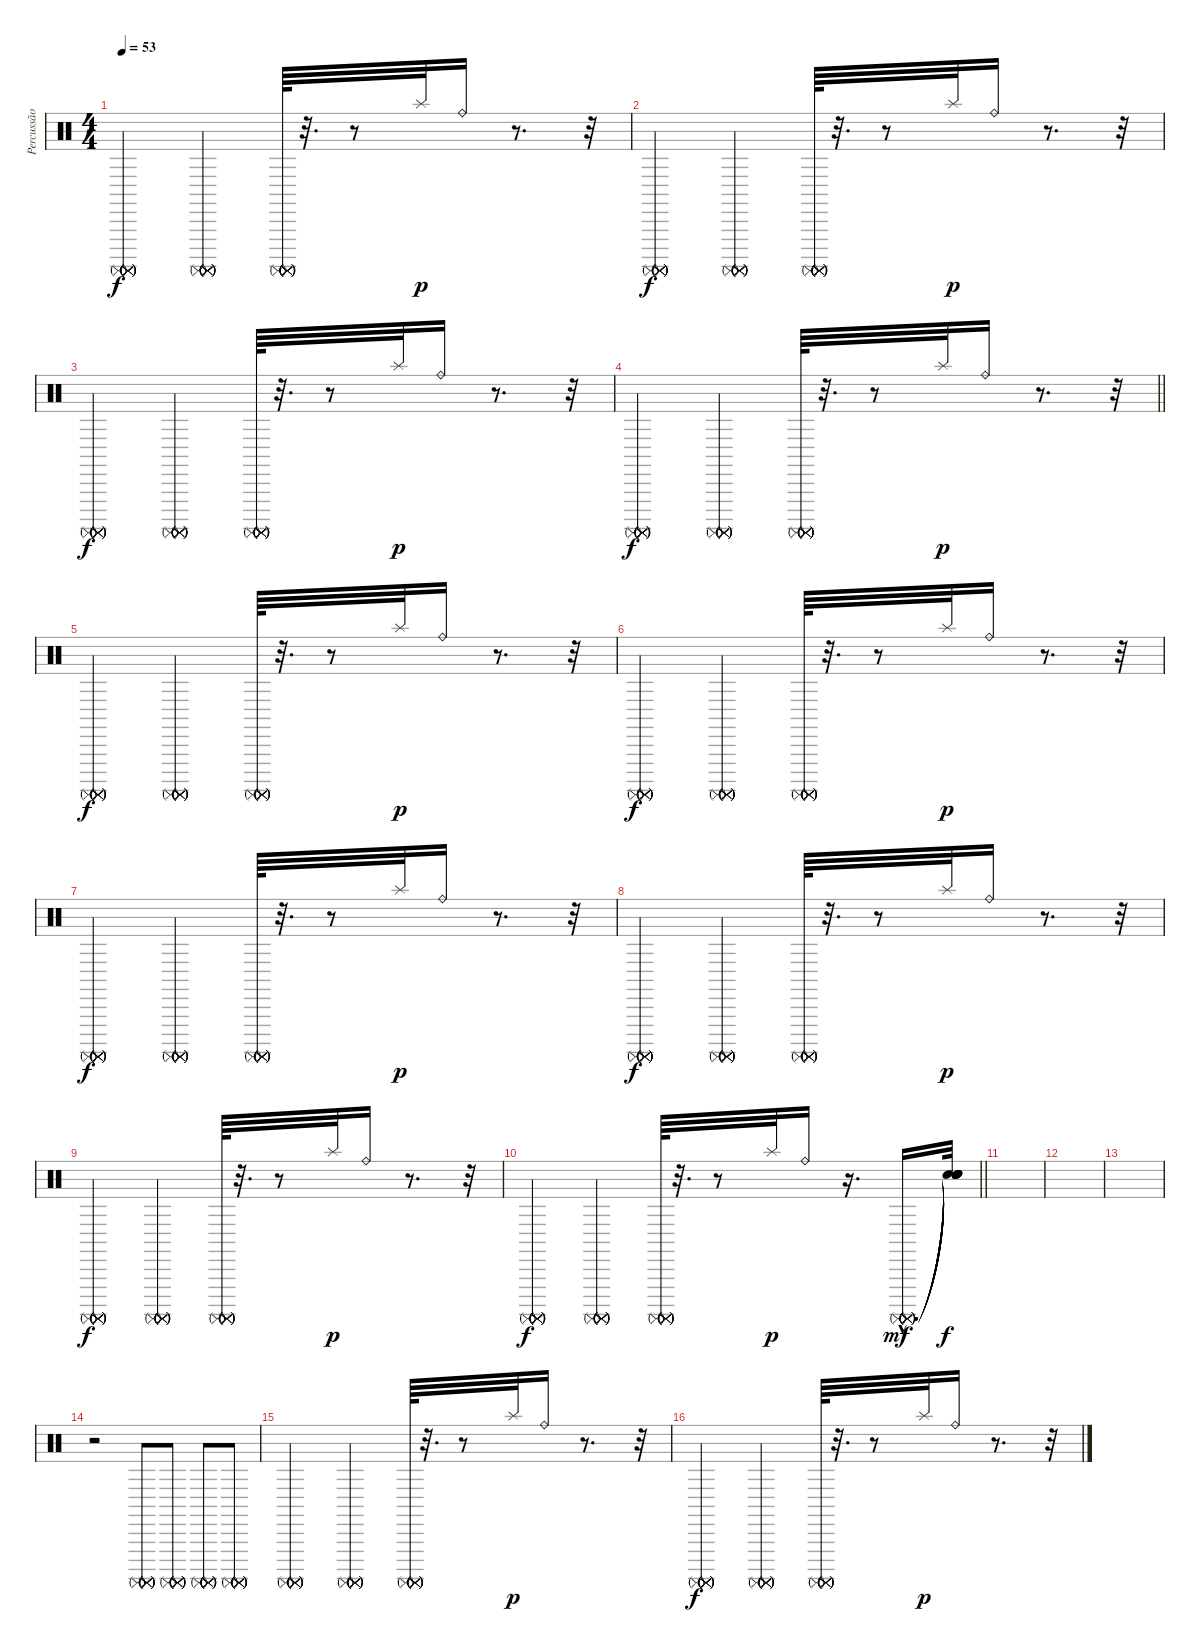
\track ("Percussão" "Percussão") {instrument percussion}
\staff {score}
\articulation defaults
\ts (4 4)
\tempo 53
\clef neutral
\ks c
("Surdo (mute)" "Surdo (mute)" "Surdo (mute)" "Surdo (mute)" "Surdo (mute)" "Surdo (mute)").4{dy f} ("Surdo (mute)" "Surdo (mute)" "Surdo (mute)" "Surdo (mute)" "Surdo (mute)" "Surdo (mute)").4 ("Surdo (mute)" "Surdo (mute)" "Surdo (mute)" "Surdo (mute)" "Surdo (mute)" "Surdo (mute)").64 r.32{d} r.8 "Splash (hit)".32{dy p} "Ride (bell)".16 r.8{d} r.32 |
("Surdo (mute)" "Surdo (mute)" "Surdo (mute)" "Surdo (mute)" "Surdo (mute)" "Surdo (mute)").4{dy f} ("Surdo (mute)" "Surdo (mute)" "Surdo (mute)" "Surdo (mute)" "Surdo (mute)" "Surdo (mute)").4 ("Surdo (mute)" "Surdo (mute)" "Surdo (mute)" "Surdo (mute)" "Surdo (mute)" "Surdo (mute)").64 r.32{d} r.8 "Splash (hit)".32{dy p} "Ride (bell)".16 r.8{d} r.32 |
("Surdo (mute)" "Surdo (mute)" "Surdo (mute)" "Surdo (mute)" "Surdo (mute)" "Surdo (mute)").4{dy f} ("Surdo (mute)" "Surdo (mute)" "Surdo (mute)" "Surdo (mute)" "Surdo (mute)" "Surdo (mute)").4 ("Surdo (mute)" "Surdo (mute)" "Surdo (mute)" "Surdo (mute)" "Surdo (mute)" "Surdo (mute)").64 r.32{d} r.8 "Splash (hit)".32{dy p} "Ride (bell)".16 r.8{d} r.32 |
\barLineRight lightlight
("Surdo (mute)" "Surdo (mute)" "Surdo (mute)" "Surdo (mute)" "Surdo (mute)" "Surdo (mute)").4{dy f} ("Surdo (mute)" "Surdo (mute)" "Surdo (mute)" "Surdo (mute)" "Surdo (mute)" "Surdo (mute)").4 ("Surdo (mute)" "Surdo (mute)" "Surdo (mute)" "Surdo (mute)" "Surdo (mute)" "Surdo (mute)").64 r.32{d} r.8 "Splash (hit)".32{dy p} "Ride (bell)".16 r.8{d} r.32 |
("Surdo (mute)" "Surdo (mute)" "Surdo (mute)" "Surdo (mute)" "Surdo (mute)" "Surdo (mute)").4{dy f} ("Surdo (mute)" "Surdo (mute)" "Surdo (mute)" "Surdo (mute)" "Surdo (mute)" "Surdo (mute)").4 ("Surdo (mute)" "Surdo (mute)" "Surdo (mute)" "Surdo (mute)" "Surdo (mute)" "Surdo (mute)").64 r.32{d} r.8 "Splash (hit)".32{dy p} "Ride (bell)".16 r.8{d} r.32 |
("Surdo (mute)" "Surdo (mute)" "Surdo (mute)" "Surdo (mute)" "Surdo (mute)" "Surdo (mute)").4{dy f} ("Surdo (mute)" "Surdo (mute)" "Surdo (mute)" "Surdo (mute)" "Surdo (mute)" "Surdo (mute)").4 ("Surdo (mute)" "Surdo (mute)" "Surdo (mute)" "Surdo (mute)" "Surdo (mute)" "Surdo (mute)").64 r.32{d} r.8 "Splash (hit)".32{dy p} "Ride (bell)".16 r.8{d} r.32 |
("Surdo (mute)" "Surdo (mute)" "Surdo (mute)" "Surdo (mute)" "Surdo (mute)" "Surdo (mute)").4{dy f} ("Surdo (mute)" "Surdo (mute)" "Surdo (mute)" "Surdo (mute)" "Surdo (mute)" "Surdo (mute)").4 ("Surdo (mute)" "Surdo (mute)" "Surdo (mute)" "Surdo (mute)" "Surdo (mute)" "Surdo (mute)").64 r.32{d} r.8 "Splash (hit)".32{dy p} "Ride (bell)".16 r.8{d} r.32 |
("Surdo (mute)" "Surdo (mute)" "Surdo (mute)" "Surdo (mute)" "Surdo (mute)" "Surdo (mute)").4{dy f} ("Surdo (mute)" "Surdo (mute)" "Surdo (mute)" "Surdo (mute)" "Surdo (mute)" "Surdo (mute)").4 ("Surdo (mute)" "Surdo (mute)" "Surdo (mute)" "Surdo (mute)" "Surdo (mute)" "Surdo (mute)").64 r.32{d} r.8 "Splash (hit)".32{dy p} "Ride (bell)".16 r.8{d} r.32 |
("Surdo (mute)" "Surdo (mute)" "Surdo (mute)" "Surdo (mute)" "Surdo (mute)" "Surdo (mute)").4{dy f} ("Surdo (mute)" "Surdo (mute)" "Surdo (mute)" "Surdo (mute)" "Surdo (mute)" "Surdo (mute)").4 ("Surdo (mute)" "Surdo (mute)" "Surdo (mute)" "Surdo (mute)" "Surdo (mute)" "Surdo (mute)").64 r.32{d} r.8 "Splash (hit)".32{dy p} "Ride (bell)".16 r.8{d} r.32 |
\barLineRight lightlight
("Surdo (mute)" "Surdo (mute)" "Surdo (mute)" "Surdo (mute)" "Surdo (mute)" "Surdo (mute)").4{dy f} ("Surdo (mute)" "Surdo (mute)" "Surdo (mute)" "Surdo (mute)" "Surdo (mute)" "Surdo (mute)").4 ("Surdo (mute)" "Surdo (mute)" "Surdo (mute)" "Surdo (mute)" "Surdo (mute)" "Surdo (mute)").64 r.32{d} r.8 "Splash (hit)".32{dy p} "Ride (bell)".16 r.16{d} ("Surdo (mute)"{hac} "Surdo (mute)"{hac} "Surdo (mute)"{hac} "Surdo (mute)"{hac} "Surdo (mute)"{hac} "Surdo (mute)"{hac}).16{d dy mf} ("Snare (hit)"{t} "Snare (hit)"{t} "Snare (hit)"{t} "Snare (hit)"{t} "Snare (hit)"{t} "Snare (hit)"{t}).32{dy f} |
|
|
|
r.2 ("Surdo (mute)" "Surdo (mute)" "Surdo (mute)" "Surdo (mute)" "Surdo (mute)" "Surdo (mute)").8 ("Surdo (mute)" "Surdo (mute)" "Surdo (mute)" "Surdo (mute)" "Surdo (mute)" "Surdo (mute)").8 ("Surdo (mute)" "Surdo (mute)" "Surdo (mute)" "Surdo (mute)" "Surdo (mute)" "Surdo (mute)").8 ("Surdo (mute)" "Surdo (mute)" "Surdo (mute)" "Surdo (mute)" "Surdo (mute)" "Surdo (mute)").8 |
("Surdo (mute)" "Surdo (mute)" "Surdo (mute)" "Surdo (mute)" "Surdo (mute)" "Surdo (mute)").4 ("Surdo (mute)" "Surdo (mute)" "Surdo (mute)" "Surdo (mute)" "Surdo (mute)" "Surdo (mute)").4 ("Surdo (mute)" "Surdo (mute)" "Surdo (mute)" "Surdo (mute)" "Surdo (mute)" "Surdo (mute)").64 r.32{d} r.8 "Splash (hit)".32{dy p} "Ride (bell)".16 r.8{d} r.32 |
("Surdo (mute)" "Surdo (mute)" "Surdo (mute)" "Surdo (mute)" "Surdo (mute)" "Surdo (mute)").4{dy f} ("Surdo (mute)" "Surdo (mute)" "Surdo (mute)" "Surdo (mute)" "Surdo (mute)" "Surdo (mute)").4 ("Surdo (mute)" "Surdo (mute)" "Surdo (mute)" "Surdo (mute)" "Surdo (mute)" "Surdo (mute)").64 r.32{d} r.8 "Splash (hit)".32{dy p} "Ride (bell)".16 r.8{d} r.32
